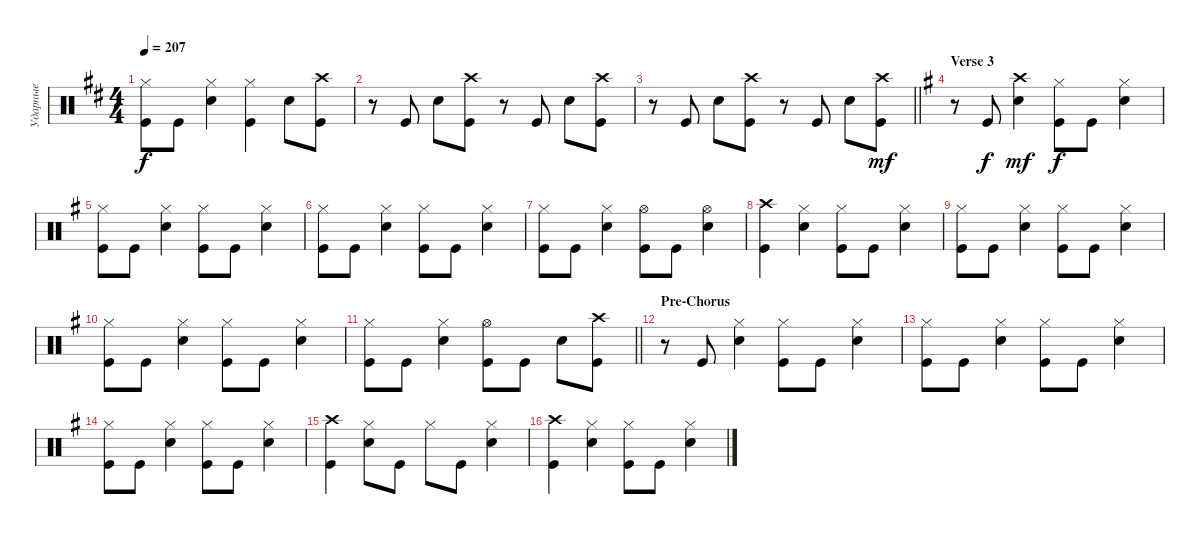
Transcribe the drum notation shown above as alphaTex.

\track ("Ударные" "Ударные") {instrument percussion}
\staff {score}
\articulation defaults
\ts (4 4)
\tempo 207
\clef neutral
\ks bminor
("Kick (hit)" "Hi-Hat (closed)").8{dy f} "Kick (hit)".8 ("Snare (hit) 2" "Hi-Hat (closed)").4 ("Kick (hit)" "Hi-Hat (closed)").4 "Snare (hit) 2".8 ("Kick (hit)" "Crash high (hit)").8 |
r.8 "Kick (hit)".8 "Snare (hit) 2".8 ("Kick (hit)" "Crash high (hit)").8 r.8 "Kick (hit)".8 "Snare (hit) 2".8 ("Kick (hit)" "Crash high (hit)").8 |
\barLineRight lightlight
r.8 "Kick (hit)".8 "Snare (hit) 2".8 ("Kick (hit)" "Crash high (hit)").8 r.8 "Kick (hit)".8 "Snare (hit) 2".8 ("Kick (hit)" "Crash high (hit)").8{dy mf} |
\section ("" "Verse 3")
\ks eminor
r.8 "Kick (hit)".8{dy f} ("Snare (hit) 2" "Crash high (hit)").4{dy mf} ("Kick (hit)" "Hi-Hat (closed)").8{dy f} "Kick (hit)".8 ("Snare (hit) 2" "Hi-Hat (closed)").4 |
("Kick (hit)" "Hi-Hat (closed)").8 "Kick (hit)".8 ("Snare (hit) 2" "Hi-Hat (closed)").4 ("Kick (hit)" "Hi-Hat (closed)").8 "Kick (hit)".8 ("Snare (hit) 2" "Hi-Hat (closed)").4 |
("Kick (hit)" "Hi-Hat (closed)").8 "Kick (hit)".8 ("Snare (hit) 2" "Hi-Hat (closed)").4 ("Kick (hit)" "Hi-Hat (closed)").8 "Kick (hit)".8 ("Snare (hit) 2" "Hi-Hat (closed)").4 |
("Kick (hit)" "Hi-Hat (closed)").8 "Kick (hit)".8 ("Snare (hit) 2" "Hi-Hat (closed)").4 ("Kick (hit)" "Hi-Hat (open)").8 "Kick (hit)".8 ("Snare (hit) 2" "Hi-Hat (open)").4 |
("Kick (hit)" "Crash high (hit)").4 ("Snare (hit) 2" "Hi-Hat (closed)").4 ("Kick (hit)" "Hi-Hat (closed)").8 "Kick (hit)".8 ("Snare (hit) 2" "Hi-Hat (closed)").4 |
("Kick (hit)" "Hi-Hat (closed)").8 "Kick (hit)".8 ("Snare (hit) 2" "Hi-Hat (closed)").4 ("Kick (hit)" "Hi-Hat (closed)").8 "Kick (hit)".8 ("Snare (hit) 2" "Hi-Hat (closed)").4 |
("Kick (hit)" "Hi-Hat (closed)").8 "Kick (hit)".8 ("Snare (hit) 2" "Hi-Hat (closed)").4 ("Kick (hit)" "Hi-Hat (closed)").8 "Kick (hit)".8 ("Snare (hit) 2" "Hi-Hat (closed)").4 |
\barLineRight lightlight
("Kick (hit)" "Hi-Hat (closed)").8 "Kick (hit)".8 ("Snare (hit) 2" "Hi-Hat (closed)").4 ("Kick (hit)" "Hi-Hat (open)").8 "Kick (hit)".8 "Snare (hit) 2".8 ("Kick (hit)" "Crash high (hit)").8 |
\section ("" "Pre-Chorus")
r.8 "Kick (hit)".8 ("Snare (hit) 2" "Hi-Hat (closed)").4 ("Kick (hit)" "Hi-Hat (closed)").8 "Kick (hit)".8 ("Snare (hit) 2" "Hi-Hat (closed)").4 |
("Kick (hit)" "Hi-Hat (closed)").8 "Kick (hit)".8 ("Snare (hit) 2" "Hi-Hat (closed)").4 ("Kick (hit)" "Hi-Hat (closed)").8 "Kick (hit)".8 ("Snare (hit) 2" "Hi-Hat (closed)").4 |
("Kick (hit)" "Hi-Hat (closed)").8 "Kick (hit)".8 ("Snare (hit) 2" "Hi-Hat (closed)").4 ("Kick (hit)" "Hi-Hat (closed)").8 "Kick (hit)".8 ("Snare (hit) 2" "Hi-Hat (closed)").4 |
("Kick (hit)" "Crash high (hit)").4 ("Snare (hit) 2" "Hi-Hat (closed)").8 "Kick (hit)".8 "Hi-Hat (closed)".8 "Kick (hit)".8 ("Snare (hit) 2" "Hi-Hat (closed)").4 |
("Kick (hit)" "Crash high (hit)").4 ("Snare (hit) 2" "Hi-Hat (closed)").4 ("Kick (hit)" "Hi-Hat (closed)").8 "Kick (hit)".8 ("Snare (hit) 2" "Hi-Hat (closed)").4
